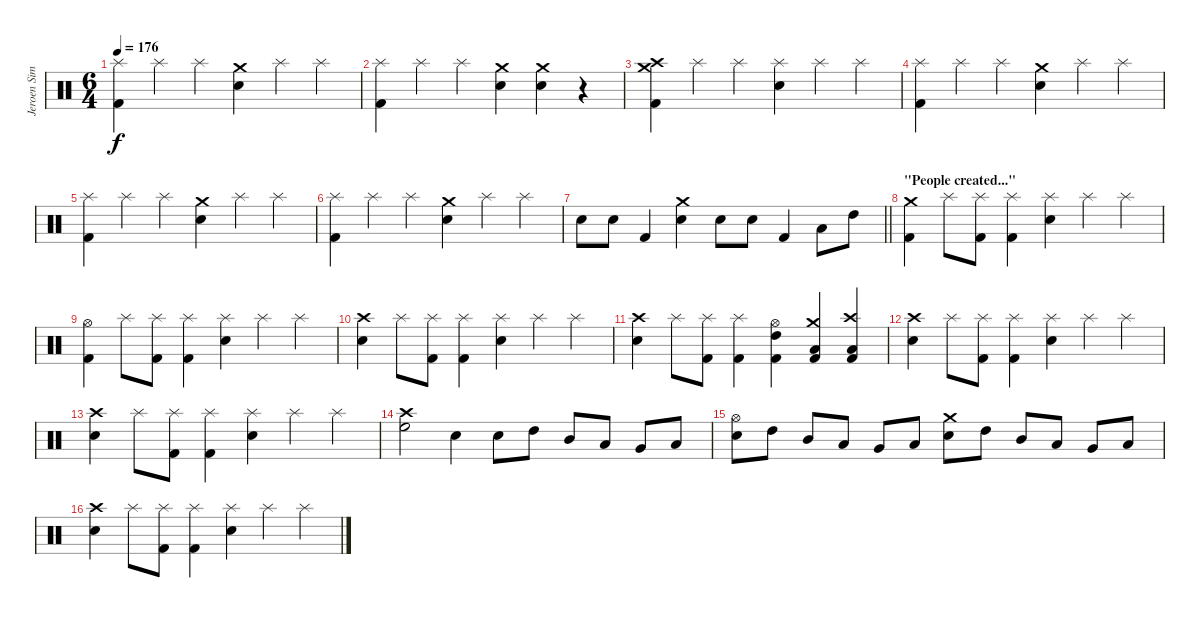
\track ("Jeroen Simons" "Jeroen Sim") {instrument percussion}
\staff {score}
\articulation defaults
\ts (6 4)
\tempo 176
\clef neutral
\ks c
("Splash (hit)" "Kick (hit) 2").4{dy f} "Splash (hit)".4 "Splash (hit)".4 ("Crash medium (hit)" "Electric Snare (hit)").4 "Splash (hit)".4 "Splash (hit)".4 |
("Splash (hit)" "Kick (hit) 2").4 "Splash (hit)".4 "Splash (hit)".4 ("Crash medium (hit)" "Electric Snare (hit)").4 ("Crash medium (hit)" "Electric Snare (hit)").4 r.4 |
("Crash medium (hit)" "Crash high (hit)" "Kick (hit) 2").4 "Splash (hit)".4 "Splash (hit)".4 ("Splash (hit)" "Electric Snare (hit)").4 "Splash (hit)".4 "Splash (hit)".4 |
("Splash (hit)" "Kick (hit) 2").4 "Splash (hit)".4 "Splash (hit)".4 ("Crash medium (hit)" "Electric Snare (hit)").4 "Splash (hit)".4 "Splash (hit)".4 |
("Splash (hit)" "Kick (hit) 2").4 "Splash (hit)".4 "Splash (hit)".4 ("Crash medium (hit)" "Electric Snare (hit)").4 "Splash (hit)".4 "Splash (hit)".4 |
("Splash (hit)" "Kick (hit) 2").4 "Splash (hit)".4 "Splash (hit)".4 ("Crash medium (hit)" "Electric Snare (hit)").4 "Splash (hit)".4 "Splash (hit)".4 |
\barLineRight lightlight "Electric Snare (hit)".8 "Electric Snare (hit)".8 "Kick (hit) 2".4
("Crash medium (hit)" "Electric Snare (hit)").4 "Electric Snare (hit)".8 "Electric Snare (hit)".8 "Kick (hit) 2".4 "Low Tom (hit)".8 "High Tom (hit)".8 |
\section ("" "\"People created...\"")
("Crash medium (hit)" "Kick (hit) 2").4 "Splash (hit)".8 ("Splash (hit)" "Kick (hit) 2").8 ("Splash (hit)" "Kick (hit) 2").4 ("Splash (hit)" "Electric Snare (hit)").4 "Splash (hit)".4 "Splash (hit)".4 |
("Hi-Hat (open)" "Kick (hit) 2").4 "Splash (hit)".8 ("Splash (hit)" "Kick (hit) 2").8 ("Splash (hit)" "Kick (hit) 2").4 ("Splash (hit)" "Electric Snare (hit)").4 "Splash (hit)".4 "Splash (hit)".4 |
("Crash high (hit)" "Snare (hit) 2").4 "Splash (hit)".8 ("Splash (hit)" "Kick (hit) 2").8 ("Splash (hit)" "Kick (hit) 2").4 ("Splash (hit)" "Electric Snare (hit)").4 "Splash (hit)".4 "Splash (hit)".4 |
("Crash high (hit)" "Snare (hit) 2").4 "Splash (hit)".8 ("Splash (hit)" "Kick (hit) 2").8 ("Splash (hit)" "Kick (hit) 2").4 ("Hi-Hat (open)" "High Tom (hit)" "Kick (hit) 2").4 ("Crash medium (hit)" "Low Tom (hit)" "Kick (hit) 2").4 ("Crash high (hit)" "Low Floor Tom (hit)" "Kick (hit) 2").4 |
("Crash high (hit)" "Snare (hit) 2").4 "Splash (hit)".8 ("Splash (hit)" "Kick (hit) 2").8 ("Splash (hit)" "Kick (hit) 2").4 ("Splash (hit)" "Electric Snare (hit)").4 "Splash (hit)".4 "Splash (hit)".4 |
("Crash high (hit)" "Snare (hit) 2").4 "Splash (hit)".8 ("Splash (hit)" "Kick (hit) 2").8 ("Splash (hit)" "Kick (hit) 2").4 ("Splash (hit)" "Electric Snare (hit)").4 "Splash (hit)".4 "Splash (hit)".4 |
("Crash high (hit)" "High Floor Tom (hit)").2 "Snare (hit) 2".4 "Electric Snare (hit)".8 "High Tom (hit)".8 "Mid Tom (hit)".8 "Low Tom (hit)".8 "Very Low Tom (hit)".8 "Low Floor Tom (hit)".8 |
("Hi-Hat (open)" "Snare (hit) 2").8 "High Tom (hit)".8 "Mid Tom (hit)".8 "Low Tom (hit)".8 "Very Low Tom (hit)".8 "Low Floor Tom (hit)".8 ("Crash medium (hit)" "Snare (hit) 2").8 "High Tom (hit)".8 "Mid Tom (hit)".8 "Low Tom (hit)".8 "Very Low Tom (hit)".8 "Low Floor Tom (hit)".8 |
("Crash high (hit)" "Snare (hit) 2").4 "Splash (hit)".8 ("Splash (hit)" "Kick (hit) 2").8 ("Splash (hit)" "Kick (hit) 2").4 ("Splash (hit)" "Electric Snare (hit)").4 "Splash (hit)".4 "Splash (hit)".4
